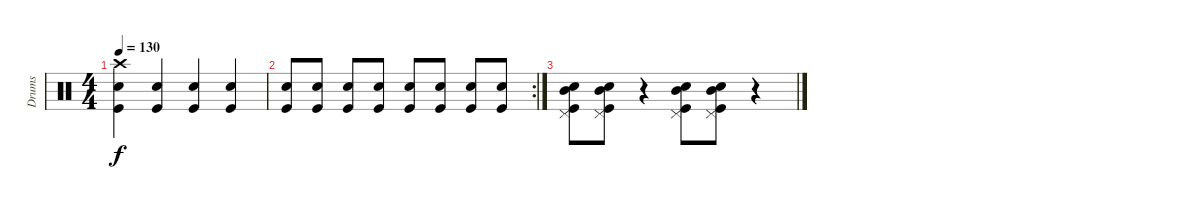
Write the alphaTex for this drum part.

\track ("Drums" "Drums") {instrument percussion}
\staff {score}
\articulation defaults
\ts (4 4)
\tempo 130
\clef neutral
\ks c
("Crash high (hit)" "Snare (hit) 2" "Kick (hit)").4{dy f} ("Snare (hit) 2" "Kick (hit)").4 ("Snare (hit) 2" "Kick (hit)").4 ("Snare (hit) 2" "Kick (hit)").4 |
\rc 2
("Snare (hit) 2" "Kick (hit)").8 ("Snare (hit) 2" "Kick (hit)").8 ("Snare (hit) 2" "Kick (hit)").8 ("Snare (hit) 2" "Kick (hit)").8 ("Snare (hit) 2" "Kick (hit)").8 ("Snare (hit) 2" "Kick (hit)").8 ("Snare (hit) 2" "Kick (hit)").8 ("Snare (hit) 2" "Kick (hit)").8 |
("Pedal Hi-Hat (hit)" "Snare (hit) 2" "Mid Tom (hit)" "Kick (hit)").8 ("Pedal Hi-Hat (hit)" "Snare (hit) 2" "Mid Tom (hit)" "Kick (hit)").8 r.4 ("Pedal Hi-Hat (hit)" "Snare (hit) 2" "Mid Tom (hit)" "Kick (hit)").8 ("Pedal Hi-Hat (hit)" "Snare (hit) 2" "Mid Tom (hit)" "Kick (hit)").8 r.4
